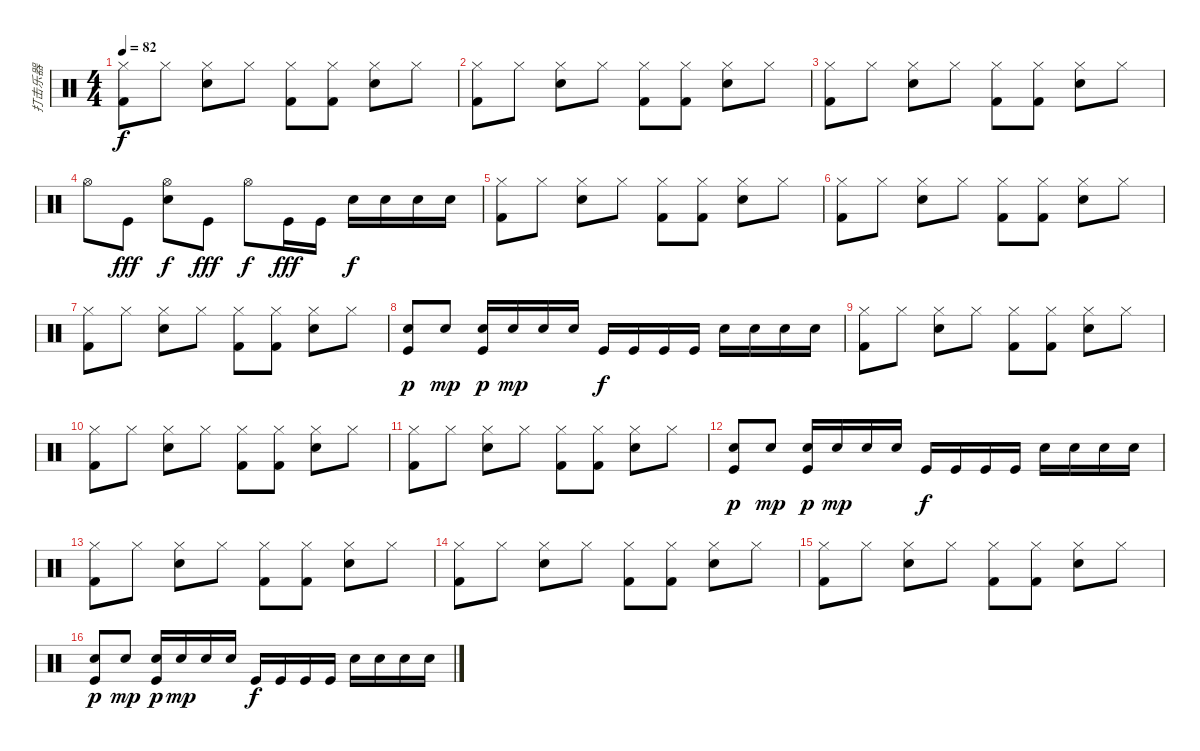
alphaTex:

\track ("打击乐器" "打击乐器") {instrument percussion}
\staff {score}
\articulation defaults
\ts (4 4)
\tempo 82
\clef neutral
\ks c
("Kick (hit) 2" "Hi-Hat (closed)").8{dy f} "Hi-Hat (closed)".8 ("Snare (hit) 2" "Hi-Hat (closed)").8 "Hi-Hat (closed)".8 ("Kick (hit) 2" "Hi-Hat (closed)").8 ("Kick (hit) 2" "Hi-Hat (closed)").8 ("Snare (hit) 2" "Hi-Hat (closed)").8 "Hi-Hat (closed)".8 |
("Kick (hit) 2" "Hi-Hat (closed)").8 "Hi-Hat (closed)".8 ("Snare (hit) 2" "Hi-Hat (closed)").8 "Hi-Hat (closed)".8 ("Kick (hit) 2" "Hi-Hat (closed)").8 ("Kick (hit) 2" "Hi-Hat (closed)").8 ("Snare (hit) 2" "Hi-Hat (closed)").8 "Hi-Hat (closed)".8 |
("Kick (hit) 2" "Hi-Hat (closed)").8 "Hi-Hat (closed)".8 ("Snare (hit) 2" "Hi-Hat (closed)").8 "Hi-Hat (closed)".8 ("Kick (hit) 2" "Hi-Hat (closed)").8 ("Kick (hit) 2" "Hi-Hat (closed)").8 ("Snare (hit) 2" "Hi-Hat (closed)").8 "Hi-Hat (closed)".8 |
"Hi-Hat (open)".8 "Kick (hit)".8{dy fff} ("Electric Snare (hit)" "Hi-Hat (open)").8{dy f} "Kick (hit)".8{dy fff} "Hi-Hat (open)".8{dy f} "Kick (hit)".16{dy fff} "Kick (hit)".16 "Electric Snare (hit)".16{dy f} "Electric Snare (hit)".16 "Electric Snare (hit)".16 "Electric Snare (hit)".16 |
("Kick (hit) 2" "Hi-Hat (closed)").8 "Hi-Hat (closed)".8 ("Snare (hit) 2" "Hi-Hat (closed)").8 "Hi-Hat (closed)".8 ("Kick (hit) 2" "Hi-Hat (closed)").8 ("Kick (hit) 2" "Hi-Hat (closed)").8 ("Snare (hit) 2" "Hi-Hat (closed)").8 "Hi-Hat (closed)".8 |
("Kick (hit) 2" "Hi-Hat (closed)").8 "Hi-Hat (closed)".8 ("Snare (hit) 2" "Hi-Hat (closed)").8 "Hi-Hat (closed)".8 ("Kick (hit) 2" "Hi-Hat (closed)").8 ("Kick (hit) 2" "Hi-Hat (closed)").8 ("Snare (hit) 2" "Hi-Hat (closed)").8 "Hi-Hat (closed)".8 |
("Kick (hit) 2" "Hi-Hat (closed)").8 "Hi-Hat (closed)".8 ("Snare (hit) 2" "Hi-Hat (closed)").8 "Hi-Hat (closed)".8 ("Kick (hit) 2" "Hi-Hat (closed)").8 ("Kick (hit) 2" "Hi-Hat (closed)").8 ("Snare (hit) 2" "Hi-Hat (closed)").8 "Hi-Hat (closed)".8 |
("Electric Snare (hit)" "Kick (hit)").8{dy p} "Electric Snare (hit)".8{dy mp} ("Electric Snare (hit)" "Kick (hit)").16{dy p} "Electric Snare (hit)".16{dy mp} "Electric Snare (hit)".16 "Electric Snare (hit)".16 "Kick (hit)".16{dy f} "Kick (hit)".16 "Kick (hit)".16 "Kick (hit)".16 "Electric Snare (hit)".16 "Electric Snare (hit)".16 "Electric Snare (hit)".16 "Electric Snare (hit)".16 |
("Kick (hit) 2" "Hi-Hat (closed)").8 "Hi-Hat (closed)".8 ("Snare (hit) 2" "Hi-Hat (closed)").8 "Hi-Hat (closed)".8 ("Kick (hit) 2" "Hi-Hat (closed)").8 ("Kick (hit) 2" "Hi-Hat (closed)").8 ("Snare (hit) 2" "Hi-Hat (closed)").8 "Hi-Hat (closed)".8 |
("Kick (hit) 2" "Hi-Hat (closed)").8 "Hi-Hat (closed)".8 ("Snare (hit) 2" "Hi-Hat (closed)").8 "Hi-Hat (closed)".8 ("Kick (hit) 2" "Hi-Hat (closed)").8 ("Kick (hit) 2" "Hi-Hat (closed)").8 ("Snare (hit) 2" "Hi-Hat (closed)").8 "Hi-Hat (closed)".8 |
("Kick (hit) 2" "Hi-Hat (closed)").8 "Hi-Hat (closed)".8 ("Snare (hit) 2" "Hi-Hat (closed)").8 "Hi-Hat (closed)".8 ("Kick (hit) 2" "Hi-Hat (closed)").8 ("Kick (hit) 2" "Hi-Hat (closed)").8 ("Snare (hit) 2" "Hi-Hat (closed)").8 "Hi-Hat (closed)".8 |
("Electric Snare (hit)" "Kick (hit)").8{dy p} "Electric Snare (hit)".8{dy mp} ("Electric Snare (hit)" "Kick (hit)").16{dy p} "Electric Snare (hit)".16{dy mp} "Electric Snare (hit)".16 "Electric Snare (hit)".16 "Kick (hit)".16{dy f} "Kick (hit)".16 "Kick (hit)".16 "Kick (hit)".16 "Electric Snare (hit)".16 "Electric Snare (hit)".16 "Electric Snare (hit)".16 "Electric Snare (hit)".16 |
("Kick (hit) 2" "Hi-Hat (closed)").8 "Hi-Hat (closed)".8 ("Snare (hit) 2" "Hi-Hat (closed)").8 "Hi-Hat (closed)".8 ("Kick (hit) 2" "Hi-Hat (closed)").8 ("Kick (hit) 2" "Hi-Hat (closed)").8 ("Snare (hit) 2" "Hi-Hat (closed)").8 "Hi-Hat (closed)".8 |
("Kick (hit) 2" "Hi-Hat (closed)").8 "Hi-Hat (closed)".8 ("Snare (hit) 2" "Hi-Hat (closed)").8 "Hi-Hat (closed)".8 ("Kick (hit) 2" "Hi-Hat (closed)").8 ("Kick (hit) 2" "Hi-Hat (closed)").8 ("Snare (hit) 2" "Hi-Hat (closed)").8 "Hi-Hat (closed)".8 |
("Kick (hit) 2" "Hi-Hat (closed)").8 "Hi-Hat (closed)".8 ("Snare (hit) 2" "Hi-Hat (closed)").8 "Hi-Hat (closed)".8 ("Kick (hit) 2" "Hi-Hat (closed)").8 ("Kick (hit) 2" "Hi-Hat (closed)").8 ("Snare (hit) 2" "Hi-Hat (closed)").8 "Hi-Hat (closed)".8 |
("Electric Snare (hit)" "Kick (hit)").8{dy p} "Electric Snare (hit)".8{dy mp} ("Electric Snare (hit)" "Kick (hit)").16{dy p} "Electric Snare (hit)".16{dy mp} "Electric Snare (hit)".16 "Electric Snare (hit)".16 "Kick (hit)".16{dy f} "Kick (hit)".16 "Kick (hit)".16 "Kick (hit)".16 "Electric Snare (hit)".16 "Electric Snare (hit)".16 "Electric Snare (hit)".16 "Electric Snare (hit)".16
